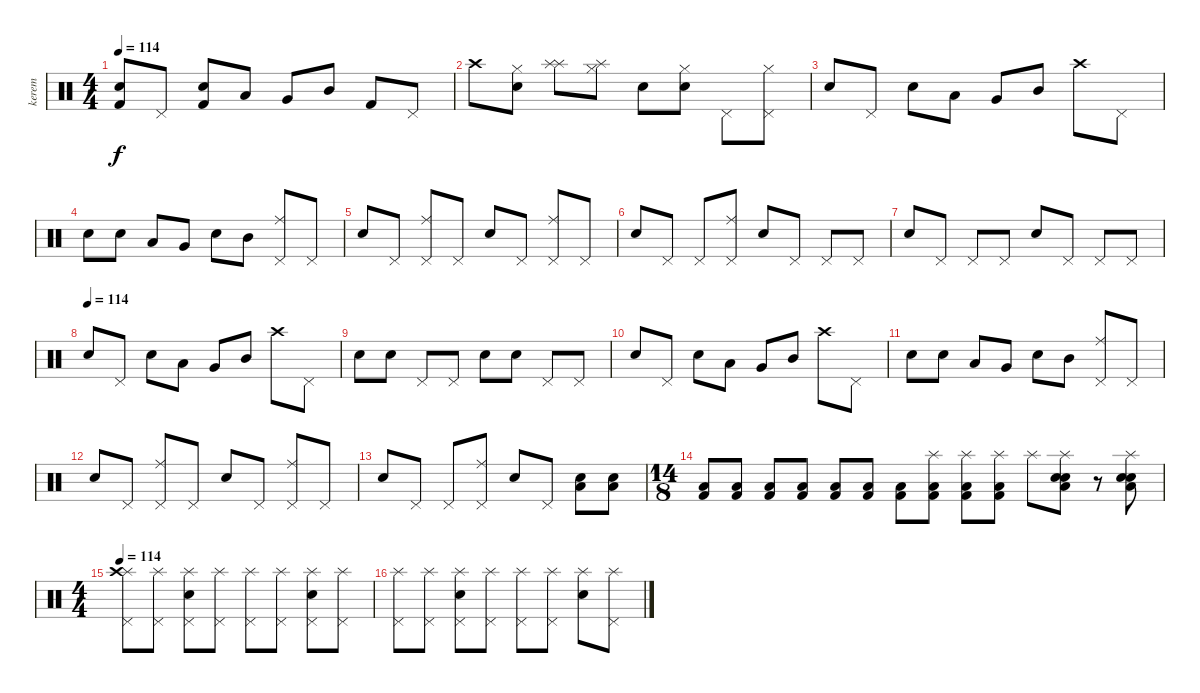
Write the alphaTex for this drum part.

\track ("kerem" "kerem") {instrument percussion}
\staff {score}
\articulation defaults
\ts (4 4)
\tempo 114
\clef neutral
\ks c
("Kick (hit) 2" "Snare (hit) 2").8{dy f} "Pedal Hi-Hat (hit)".8 ("Kick (hit) 2" "Snare (hit) 2").8 "Low Floor Tom (hit)".8 "Very Low Tom (hit)".8 "Mid Tom (hit)".8 "Kick (hit) 2".8 "Pedal Hi-Hat (hit)".8 |
"Crash high (hit)".8 ("Hi-Hat (closed)" "Snare (hit) 2").8 ("Splash (hit)" "Splash (hit)").8 ("Hi-Hat (closed)" "Splash (hit)").8 "Snare (hit) 2".8 ("Hi-Hat (closed)" "Snare (hit) 2").8 "Pedal Hi-Hat (hit)".8 ("Hi-Hat (closed)" "Pedal Hi-Hat (hit)").8 |
"Snare (hit) 2".8 "Pedal Hi-Hat (hit)".8 "Snare (hit) 2".8 "Low Floor Tom (hit)".8 "Very Low Tom (hit)".8 "Mid Tom (hit)".8 "Crash high (hit)".8 "Pedal Hi-Hat (hit)".8 |
"Snare (hit) 2".8 "Snare (hit) 2".8 "Low Floor Tom (hit)".8 "Very Low Tom (hit)".8 "Snare (hit) 2".8 "Mid Tom (hit)".8 ("Ride (middle)" "Pedal Hi-Hat (hit)").8 "Pedal Hi-Hat (hit)".8 |
"Snare (hit) 2".8 "Pedal Hi-Hat (hit)".8 ("Pedal Hi-Hat (hit)" "Ride (middle)").8 "Pedal Hi-Hat (hit)".8 "Snare (hit) 2".8 "Pedal Hi-Hat (hit)".8 ("Ride (middle)" "Pedal Hi-Hat (hit)").8 "Pedal Hi-Hat (hit)".8 |
"Snare (hit) 2".8 "Pedal Hi-Hat (hit)".8 "Pedal Hi-Hat (hit)".8 ("Ride (middle)" "Pedal Hi-Hat (hit)").8 "Snare (hit) 2".8 "Pedal Hi-Hat (hit)".8 "Pedal Hi-Hat (hit)".8 "Pedal Hi-Hat (hit)".8 |
"Snare (hit) 2".8 "Pedal Hi-Hat (hit)".8 "Pedal Hi-Hat (hit)".8 "Pedal Hi-Hat (hit)".8 "Snare (hit) 2".8 "Pedal Hi-Hat (hit)".8 "Pedal Hi-Hat (hit)".8 "Pedal Hi-Hat (hit)".8 |
\tempo (114)
"Snare (hit) 2".8 "Pedal Hi-Hat (hit)".8 "Snare (hit) 2".8 "Low Floor Tom (hit)".8 "Very Low Tom (hit)".8 "Mid Tom (hit)".8 "Crash high (hit)".8 "Pedal Hi-Hat (hit)".8 |
"Snare (hit) 2".8 "Snare (hit) 2".8 "Pedal Hi-Hat (hit)".8 "Pedal Hi-Hat (hit)".8 "Snare (hit) 2".8 "Snare (hit) 2".8 "Pedal Hi-Hat (hit)".8 "Pedal Hi-Hat (hit)".8 |
"Snare (hit) 2".8 "Pedal Hi-Hat (hit)".8 "Snare (hit) 2".8 "Low Floor Tom (hit)".8 "Very Low Tom (hit)".8 "Mid Tom (hit)".8 "Crash high (hit)".8 "Pedal Hi-Hat (hit)".8 |
"Snare (hit) 2".8 "Snare (hit) 2".8 "Low Floor Tom (hit)".8 "Very Low Tom (hit)".8 "Snare (hit) 2".8 "Mid Tom (hit)".8 ("Ride (middle)" "Pedal Hi-Hat (hit)").8 "Pedal Hi-Hat (hit)".8 |
"Snare (hit) 2".8 "Pedal Hi-Hat (hit)".8 ("Pedal Hi-Hat (hit)" "Ride (middle)").8 "Pedal Hi-Hat (hit)".8 "Snare (hit) 2".8 "Pedal Hi-Hat (hit)".8 ("Ride (middle)" "Pedal Hi-Hat (hit)").8 "Pedal Hi-Hat (hit)".8 |
"Snare (hit) 2".8 "Pedal Hi-Hat (hit)".8 "Pedal Hi-Hat (hit)".8 ("Ride (middle)" "Pedal Hi-Hat (hit)").8 "Snare (hit) 2".8 "Pedal Hi-Hat (hit)".8 ("Snare (hit) 2" "Low Floor Tom (hit)").8 ("Snare (hit) 2" "Low Floor Tom (hit)").8 |
\ts (14 8)
("Low Floor Tom (hit)" "Kick (hit) 2").8 ("Low Floor Tom (hit)" "Kick (hit) 2").8 ("Low Floor Tom (hit)" "Kick (hit) 2").8 ("Kick (hit) 2" "Low Floor Tom (hit)").8 ("Kick (hit) 2" "Low Floor Tom (hit)").8 ("Kick (hit) 2" "Low Floor Tom (hit)").8 ("Kick (hit) 2" "Low Floor Tom (hit)").8 ("Splash (hit)" "Kick (hit) 2" "Low Floor Tom (hit)").8 ("Splash (hit)" "Kick (hit) 2" "Low Floor Tom (hit)").8 ("Splash (hit)" "Low Floor Tom (hit)" "Kick (hit) 2").8 "Splash (hit)".8 ("Splash (hit)" "Snare (hit) 2" "Electric Snare (hit)" "Low Floor Tom (hit)").8 r.8 ("Splash (hit)" "Snare (hit) 2" "Low Floor Tom (hit)" "Electric Snare (hit)").8 |
\ts (4 4)
\tempo 114
("Splash (hit)" "Crash high (hit)" "Pedal Hi-Hat (hit)").8 ("Splash (hit)" "Pedal Hi-Hat (hit)").8 ("Splash (hit)" "Snare (hit) 2" "Pedal Hi-Hat (hit)").8 ("Splash (hit)" "Pedal Hi-Hat (hit)").8 ("Splash (hit)" "Pedal Hi-Hat (hit)").8 ("Splash (hit)" "Pedal Hi-Hat (hit)").8 ("Splash (hit)" "Snare (hit) 2" "Pedal Hi-Hat (hit)").8 ("Splash (hit)" "Pedal Hi-Hat (hit)").8 |
("Splash (hit)" "Pedal Hi-Hat (hit)").8 ("Splash (hit)" "Pedal Hi-Hat (hit)").8 ("Splash (hit)" "Snare (hit) 2" "Pedal Hi-Hat (hit)").8 ("Splash (hit)" "Pedal Hi-Hat (hit)").8 ("Splash (hit)" "Pedal Hi-Hat (hit)").8 ("Splash (hit)" "Pedal Hi-Hat (hit)").8 ("Splash (hit)" "Snare (hit) 2").8 ("Splash (hit)" "Pedal Hi-Hat (hit)").8
